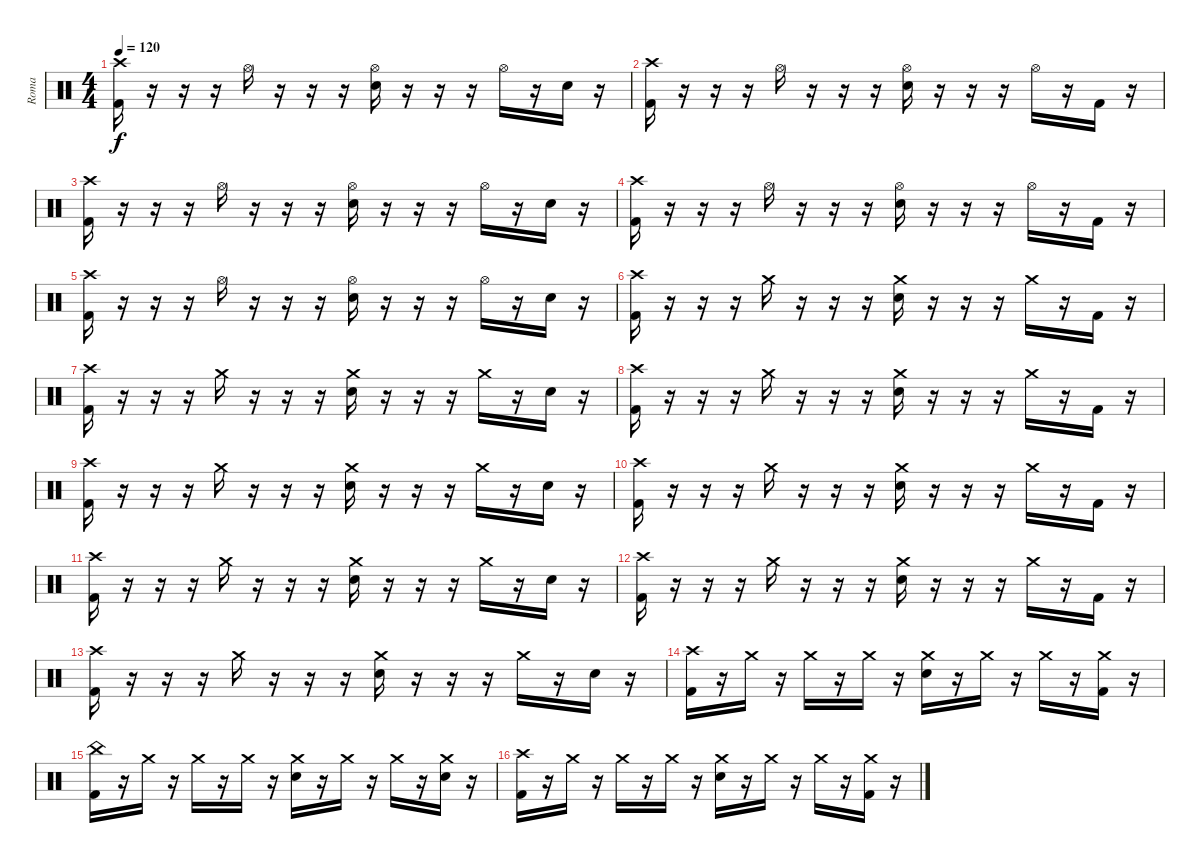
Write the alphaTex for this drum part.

\track ("Roma" "Roma") {instrument percussion}
\staff {score}
\articulation defaults
\ts (4 4)
\tempo 120
\clef neutral
\ks c
("Crash high (hit)" "Kick (hit) 2").16{dy f} r.16 r.16 r.16 "Hi-Hat (open)".16 r.16 r.16 r.16 ("Hi-Hat (open)" "Electric Snare (hit)").16 r.16 r.16 r.16 "Hi-Hat (open)".16 r.16 "Electric Snare (hit)".16 r.16 |
("Crash high (hit)" "Kick (hit) 2").16 r.16 r.16 r.16 "Hi-Hat (open)".16 r.16 r.16 r.16 ("Hi-Hat (open)" "Electric Snare (hit)").16 r.16 r.16 r.16 "Hi-Hat (open)".16 r.16 "Kick (hit) 2".16 r.16 |
("Crash high (hit)" "Kick (hit) 2").16 r.16 r.16 r.16 "Hi-Hat (open)".16 r.16 r.16 r.16 ("Hi-Hat (open)" "Electric Snare (hit)").16 r.16 r.16 r.16 "Hi-Hat (open)".16 r.16 "Electric Snare (hit)".16 r.16 |
("Crash high (hit)" "Kick (hit) 2").16 r.16 r.16 r.16 "Hi-Hat (open)".16 r.16 r.16 r.16 ("Hi-Hat (open)" "Electric Snare (hit)").16 r.16 r.16 r.16 "Hi-Hat (open)".16 r.16 "Kick (hit) 2".16 r.16 |
("Crash high (hit)" "Kick (hit) 2").16 r.16 r.16 r.16 "Hi-Hat (open)".16 r.16 r.16 r.16 ("Hi-Hat (open)" "Electric Snare (hit)").16 r.16 r.16 r.16 "Hi-Hat (open)".16 r.16 "Electric Snare (hit)".16 r.16 |
("Crash high (hit)" "Kick (hit) 2").16 r.16 r.16 r.16 "Crash medium (hit)".16 r.16 r.16 r.16 ("Crash medium (hit)" "Electric Snare (hit)").16 r.16 r.16 r.16 "Crash medium (hit)".16 r.16 "Kick (hit) 2".16 r.16 |
("Crash high (hit)" "Kick (hit) 2").16 r.16 r.16 r.16 "Crash medium (hit)".16 r.16 r.16 r.16 ("Crash medium (hit)" "Electric Snare (hit)").16 r.16 r.16 r.16 "Crash medium (hit)".16 r.16 "Electric Snare (hit)".16 r.16 |
("Crash high (hit)" "Kick (hit) 2").16 r.16 r.16 r.16 "Crash medium (hit)".16 r.16 r.16 r.16 ("Crash medium (hit)" "Electric Snare (hit)").16 r.16 r.16 r.16 "Crash medium (hit)".16 r.16 "Kick (hit) 2".16 r.16 |
("Crash high (hit)" "Kick (hit) 2").16 r.16 r.16 r.16 "Crash medium (hit)".16 r.16 r.16 r.16 ("Crash medium (hit)" "Electric Snare (hit)").16 r.16 r.16 r.16 "Crash medium (hit)".16 r.16 "Electric Snare (hit)".16 r.16 |
("Crash high (hit)" "Kick (hit) 2").16 r.16 r.16 r.16 "Crash medium (hit)".16 r.16 r.16 r.16 ("Crash medium (hit)" "Electric Snare (hit)").16 r.16 r.16 r.16 "Crash medium (hit)".16 r.16 "Kick (hit) 2".16 r.16 |
("Crash high (hit)" "Kick (hit) 2").16 r.16 r.16 r.16 "Crash medium (hit)".16 r.16 r.16 r.16 ("Crash medium (hit)" "Electric Snare (hit)").16 r.16 r.16 r.16 "Crash medium (hit)".16 r.16 "Electric Snare (hit)".16 r.16 |
("Crash high (hit)" "Kick (hit) 2").16 r.16 r.16 r.16 "Crash medium (hit)".16 r.16 r.16 r.16 ("Crash medium (hit)" "Electric Snare (hit)").16 r.16 r.16 r.16 "Crash medium (hit)".16 r.16 "Kick (hit) 2".16 r.16 |
("Crash high (hit)" "Kick (hit) 2").16 r.16 r.16 r.16 "Crash medium (hit)".16 r.16 r.16 r.16 ("Crash medium (hit)" "Electric Snare (hit)").16 r.16 r.16 r.16 "Crash medium (hit)".16 r.16 "Electric Snare (hit)".16 r.16 |
("Crash high (hit)" "Kick (hit) 2").16 r.16 "Crash medium (hit)".16 r.16 "Crash medium (hit)".16 r.16 "Crash medium (hit)".16 r.16 ("Crash medium (hit)" "Electric Snare (hit)").16 r.16 "Crash medium (hit)".16 r.16 "Crash medium (hit)".16 r.16 ("Crash medium (hit)" "Kick (hit) 2").16 r.16 |
("China (hit)" "Kick (hit) 2").16 r.16 "Crash medium (hit)".16 r.16 "Crash medium (hit)".16 r.16 "Crash medium (hit)".16 r.16 ("Crash medium (hit)" "Electric Snare (hit)").16 r.16 "Crash medium (hit)".16 r.16 "Crash medium (hit)".16 r.16 ("Crash medium (hit)" "Electric Snare (hit)").16 r.16 |
("Crash high (hit)" "Kick (hit) 2").16 r.16 "Crash medium (hit)".16 r.16 "Crash medium (hit)".16 r.16 "Crash medium (hit)".16 r.16 ("Crash medium (hit)" "Electric Snare (hit)").16 r.16 "Crash medium (hit)".16 r.16 "Crash medium (hit)".16 r.16 ("Crash medium (hit)" "Kick (hit) 2").16 r.16
